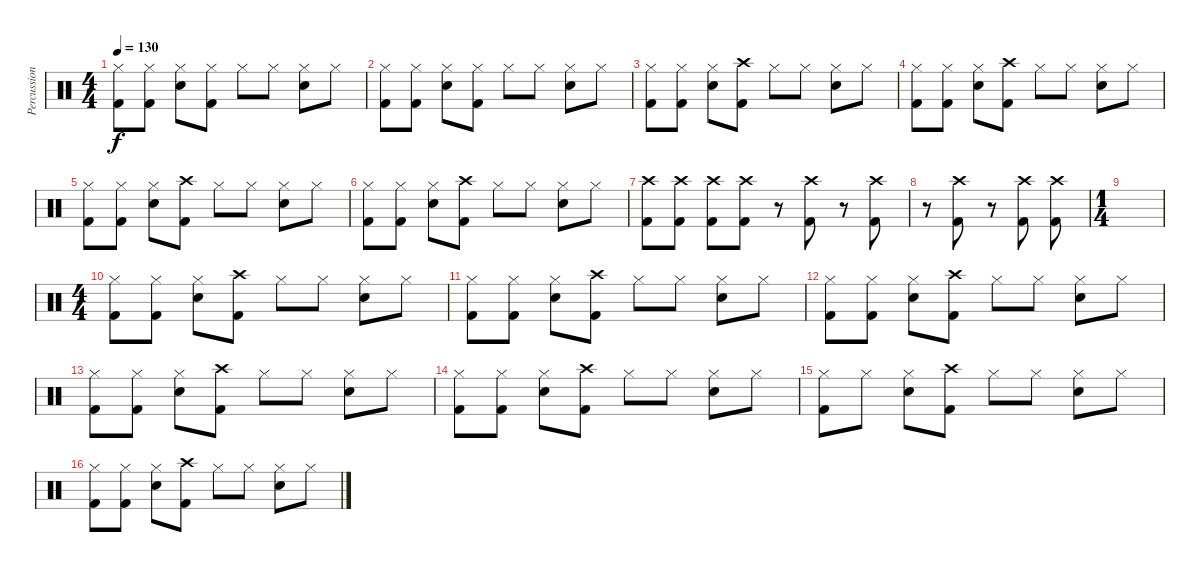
\track ("Percussion" "Percussion") {instrument percussion}
\staff {score}
\articulation defaults
\ts (4 4)
\tempo 130
\clef neutral
\ks c
("Hi-Hat (closed)" "Kick (hit) 2").8{dy f} ("Hi-Hat (closed)" "Kick (hit) 2").8 ("Hi-Hat (closed)" "Snare (hit) 2").8 ("Hi-Hat (closed)" "Kick (hit) 2").8 "Hi-Hat (closed)".8 "Hi-Hat (closed)".8 ("Hi-Hat (closed)" "Snare (hit) 2").8 "Hi-Hat (closed)".8 |
("Hi-Hat (closed)" "Kick (hit) 2").8 ("Hi-Hat (closed)" "Kick (hit) 2").8 ("Hi-Hat (closed)" "Snare (hit) 2").8 ("Hi-Hat (closed)" "Kick (hit) 2").8 "Hi-Hat (closed)".8 "Hi-Hat (closed)".8 ("Hi-Hat (closed)" "Snare (hit) 2").8 "Hi-Hat (closed)".8 |
("Hi-Hat (closed)" "Kick (hit) 2").8 ("Hi-Hat (closed)" "Kick (hit) 2").8 ("Hi-Hat (closed)" "Snare (hit) 2").8 ("Crash high (hit)" "Kick (hit) 2").8 "Hi-Hat (closed)".8 "Hi-Hat (closed)".8 ("Hi-Hat (closed)" "Snare (hit) 2").8 "Hi-Hat (closed)".8 |
("Hi-Hat (closed)" "Kick (hit) 2").8 ("Hi-Hat (closed)" "Kick (hit) 2").8 ("Hi-Hat (closed)" "Snare (hit) 2").8 ("Crash high (hit)" "Kick (hit) 2").8 "Hi-Hat (closed)".8 "Hi-Hat (closed)".8 ("Hi-Hat (closed)" "Snare (hit) 2").8 "Hi-Hat (closed)".8 |
("Hi-Hat (closed)" "Kick (hit) 2").8 ("Hi-Hat (closed)" "Kick (hit) 2").8 ("Hi-Hat (closed)" "Snare (hit) 2").8 ("Crash high (hit)" "Kick (hit) 2").8 "Hi-Hat (closed)".8 "Hi-Hat (closed)".8 ("Hi-Hat (closed)" "Snare (hit) 2").8 "Hi-Hat (closed)".8 |
("Hi-Hat (closed)" "Kick (hit) 2").8 ("Hi-Hat (closed)" "Kick (hit) 2").8 ("Hi-Hat (closed)" "Snare (hit) 2").8 ("Crash high (hit)" "Kick (hit) 2").8 "Hi-Hat (closed)".8 "Hi-Hat (closed)".8 ("Hi-Hat (closed)" "Snare (hit) 2").8 "Hi-Hat (closed)".8 |
("Crash high (hit)" "Kick (hit) 2").8 ("Crash high (hit)" "Kick (hit) 2").8 ("Crash high (hit)" "Kick (hit) 2").8 ("Crash high (hit)" "Kick (hit) 2").8 r.8 ("Crash high (hit)" "Kick (hit) 2").8 r.8 ("Crash high (hit)" "Kick (hit) 2").8 |
r.8 ("Crash high (hit)" "Kick (hit) 2").8 r.8 ("Crash high (hit)" "Kick (hit) 2").8 ("Crash high (hit)" "Kick (hit) 2").8 |
\ts (1 4)
|
\ts (4 4)
("Hi-Hat (closed)" "Kick (hit) 2").8 ("Hi-Hat (closed)" "Kick (hit) 2").8 ("Hi-Hat (closed)" "Snare (hit) 2").8 ("Crash high (hit)" "Kick (hit) 2").8 "Hi-Hat (closed)".8 "Hi-Hat (closed)".8 ("Hi-Hat (closed)" "Snare (hit) 2").8 "Hi-Hat (closed)".8 |
("Hi-Hat (closed)" "Kick (hit) 2").8 ("Hi-Hat (closed)" "Kick (hit) 2").8 ("Hi-Hat (closed)" "Snare (hit) 2").8 ("Crash high (hit)" "Kick (hit) 2").8 "Hi-Hat (closed)".8 "Hi-Hat (closed)".8 ("Hi-Hat (closed)" "Snare (hit) 2").8 "Hi-Hat (closed)".8 |
("Hi-Hat (closed)" "Kick (hit) 2").8 ("Hi-Hat (closed)" "Kick (hit) 2").8 ("Hi-Hat (closed)" "Snare (hit) 2").8 ("Crash high (hit)" "Kick (hit) 2").8 "Hi-Hat (closed)".8 "Hi-Hat (closed)".8 ("Hi-Hat (closed)" "Snare (hit) 2").8 "Hi-Hat (closed)".8 |
("Hi-Hat (closed)" "Kick (hit) 2").8 ("Hi-Hat (closed)" "Kick (hit) 2").8 ("Hi-Hat (closed)" "Snare (hit) 2").8 ("Crash high (hit)" "Kick (hit) 2").8 "Hi-Hat (closed)".8 "Hi-Hat (closed)".8 ("Hi-Hat (closed)" "Snare (hit) 2").8 "Hi-Hat (closed)".8 |
("Hi-Hat (closed)" "Kick (hit) 2").8 ("Hi-Hat (closed)" "Kick (hit) 2").8 ("Hi-Hat (closed)" "Snare (hit) 2").8 ("Crash high (hit)" "Kick (hit) 2").8 "Hi-Hat (closed)".8 "Hi-Hat (closed)".8 ("Hi-Hat (closed)" "Snare (hit) 2").8 "Hi-Hat (closed)".8 |
("Hi-Hat (closed)" "Kick (hit) 2").8 "Hi-Hat (closed)".8 ("Hi-Hat (closed)" "Snare (hit) 2").8 ("Crash high (hit)" "Kick (hit) 2").8 "Hi-Hat (closed)".8 "Hi-Hat (closed)".8 ("Hi-Hat (closed)" "Snare (hit) 2").8 "Hi-Hat (closed)".8 |
("Hi-Hat (closed)" "Kick (hit) 2").8 ("Hi-Hat (closed)" "Kick (hit) 2").8 ("Hi-Hat (closed)" "Snare (hit) 2").8 ("Crash high (hit)" "Kick (hit) 2").8 "Hi-Hat (closed)".8 "Hi-Hat (closed)".8 ("Hi-Hat (closed)" "Snare (hit) 2").8 "Hi-Hat (closed)".8
